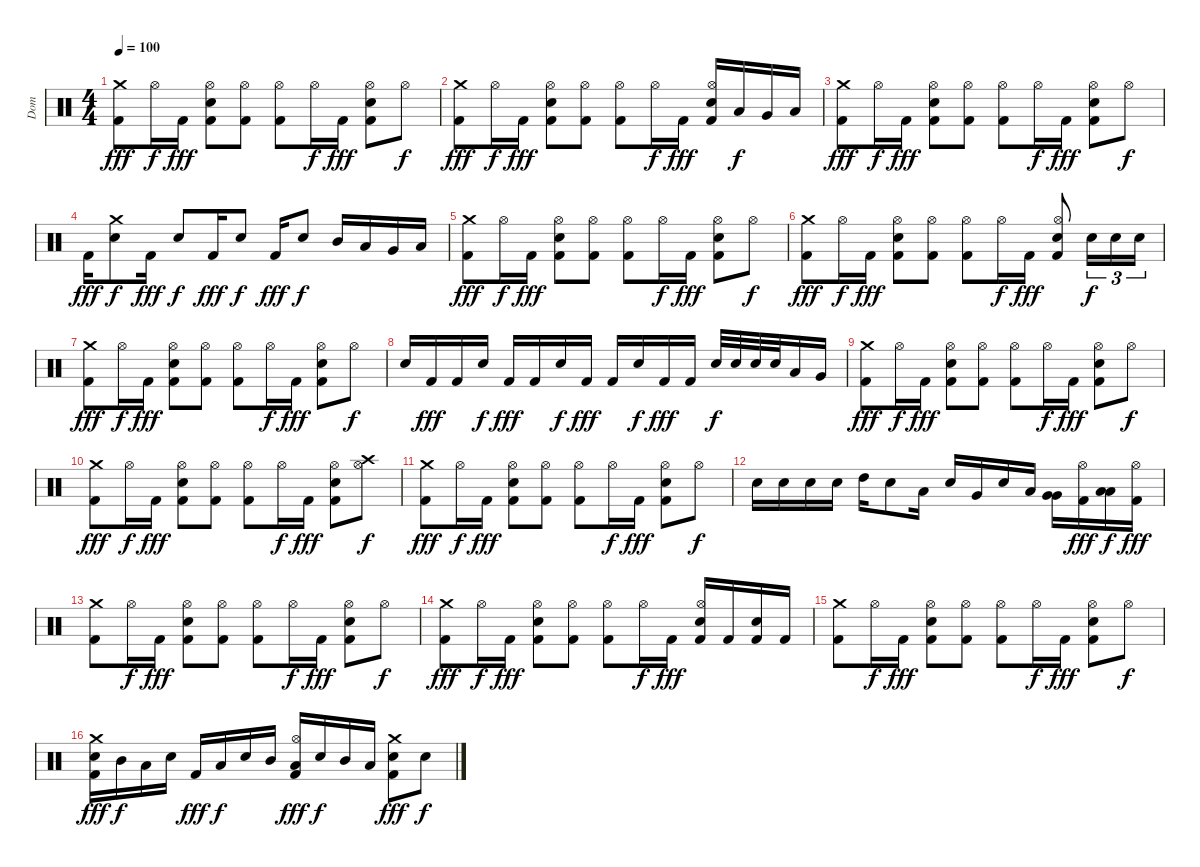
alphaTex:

\track ("Dom" "Dom") {instrument percussion}
\staff {score}
\articulation defaults
\ts (4 4)
\tempo 100
\clef neutral
\ks c
("Crash medium (hit)" "Kick (hit) 2").8{dy fff} "Hi-Hat (open)".16{dy f} "Kick (hit) 2".16{dy fff} ("Hi-Hat (open)" "Snare (hit) 2" "Kick (hit) 2").8 ("Hi-Hat (open)" "Kick (hit) 2").8 ("Hi-Hat (open)" "Kick (hit) 2").8 "Hi-Hat (open)".16{dy f} "Kick (hit) 2".16{dy fff} ("Hi-Hat (open)" "Snare (hit) 2" "Kick (hit) 2").8 "Hi-Hat (open)".8{dy f} |
("Crash medium (hit)" "Kick (hit) 2").8{dy fff} "Hi-Hat (open)".16{dy f} "Kick (hit) 2".16{dy fff} ("Hi-Hat (open)" "Snare (hit) 2" "Kick (hit) 2").8 ("Hi-Hat (open)" "Kick (hit) 2").8 ("Hi-Hat (open)" "Kick (hit) 2").8 "Hi-Hat (open)".16{dy f} "Kick (hit) 2".16{dy fff} ("Hi-Hat (open)" "Snare (hit) 2" "Kick (hit) 2").16 "Low Tom (hit)".16{dy f} "Very Low Tom (hit)".16 "Low Floor Tom (hit)".16 |
("Crash medium (hit)" "Kick (hit) 2").8{dy fff} "Hi-Hat (open)".16{dy f} "Kick (hit) 2".16{dy fff} ("Hi-Hat (open)" "Snare (hit) 2" "Kick (hit) 2").8 ("Hi-Hat (open)" "Kick (hit) 2").8 ("Hi-Hat (open)" "Kick (hit) 2").8 "Hi-Hat (open)".16{dy f} "Kick (hit) 2".16{dy fff} ("Hi-Hat (open)" "Snare (hit) 2" "Kick (hit) 2").8 "Hi-Hat (open)".8{dy f} |
"Kick (hit) 2".16{dy fff} ("Crash medium (hit)" "Snare (hit) 2").8{dy f} "Kick (hit) 2".16{dy fff} "Snare (hit) 2".8{dy f} "Kick (hit) 2".16{dy fff} "Snare (hit) 2".8{dy f} "Kick (hit) 2".16{dy fff} "Snare (hit) 2".8{dy f} "Mid Tom (hit)".16 "Low Tom (hit)".16 "Very Low Tom (hit)".16 "Low Floor Tom (hit)".16 |
("Crash medium (hit)" "Kick (hit) 2").8{dy fff} "Hi-Hat (open)".16{dy f} "Kick (hit) 2".16{dy fff} ("Hi-Hat (open)" "Snare (hit) 2" "Kick (hit) 2").8 ("Hi-Hat (open)" "Kick (hit) 2").8 ("Hi-Hat (open)" "Kick (hit) 2").8 "Hi-Hat (open)".16{dy f} "Kick (hit) 2".16{dy fff} ("Hi-Hat (open)" "Snare (hit) 2" "Kick (hit) 2").8 "Hi-Hat (open)".8{dy f} |
("Crash medium (hit)" "Kick (hit) 2").8{dy fff} "Hi-Hat (open)".16{dy f} "Kick (hit) 2".16{dy fff} ("Hi-Hat (open)" "Snare (hit) 2" "Kick (hit) 2").8 ("Hi-Hat (open)" "Kick (hit) 2").8 ("Hi-Hat (open)" "Kick (hit) 2").8 "Hi-Hat (open)".16{dy f} "Kick (hit) 2".16{dy fff} ("Hi-Hat (open)" "Snare (hit) 2" "Kick (hit) 2").8 "Snare (hit) 2".16{tu (3 2) dy f} "Snare (hit) 2".16{tu (3 2)} "Snare (hit) 2".16{tu (3 2)} |
("Crash medium (hit)" "Kick (hit) 2").8{dy fff} "Hi-Hat (open)".16{dy f} "Kick (hit) 2".16{dy fff} ("Hi-Hat (open)" "Snare (hit) 2" "Kick (hit) 2").8 ("Hi-Hat (open)" "Kick (hit) 2").8 ("Hi-Hat (open)" "Kick (hit) 2").8 "Hi-Hat (open)".16{dy f} "Kick (hit) 2".16{dy fff} ("Hi-Hat (open)" "Snare (hit) 2" "Kick (hit) 2").8 "Hi-Hat (open)".8{dy f} |
"Snare (hit) 2".16 "Kick (hit) 2".16{dy fff} "Kick (hit) 2".16 "Snare (hit) 2".16{dy f} "Kick (hit) 2".16{dy fff} "Kick (hit) 2".16 "Snare (hit) 2".16{dy f} "Kick (hit) 2".16{dy fff} "Kick (hit) 2".16 "Snare (hit) 2".16{dy f} "Kick (hit) 2".16{dy fff} "Kick (hit) 2".16 "Snare (hit) 2".32{dy f} "Snare (hit) 2".32 "Snare (hit) 2".32 "Snare (hit) 2".32 "Low Tom (hit)".16 "Very Low Tom (hit)".16 |
("Crash medium (hit)" "Kick (hit) 2").8{dy fff} "Hi-Hat (open)".16{dy f} "Kick (hit) 2".16{dy fff} ("Hi-Hat (open)" "Snare (hit) 2" "Kick (hit) 2").8 ("Hi-Hat (open)" "Kick (hit) 2").8 ("Hi-Hat (open)" "Kick (hit) 2").8 "Hi-Hat (open)".16{dy f} "Kick (hit) 2".16{dy fff} ("Hi-Hat (open)" "Snare (hit) 2" "Kick (hit) 2").8 "Hi-Hat (open)".8{dy f} |
("Crash medium (hit)" "Kick (hit) 2").8{dy fff} "Hi-Hat (open)".16{dy f} "Kick (hit) 2".16{dy fff} ("Hi-Hat (open)" "Snare (hit) 2" "Kick (hit) 2").8 ("Hi-Hat (open)" "Kick (hit) 2").8 ("Hi-Hat (open)" "Kick (hit) 2").8 "Hi-Hat (open)".16{dy f} "Kick (hit) 2".16{dy fff} ("Hi-Hat (open)" "Snare (hit) 2" "Kick (hit) 2").8 ("Crash high (hit)" "Hi-Hat (open)").8{dy f} |
("Crash medium (hit)" "Kick (hit) 2").8{dy fff} "Hi-Hat (open)".16{dy f} "Kick (hit) 2".16{dy fff} ("Hi-Hat (open)" "Snare (hit) 2" "Kick (hit) 2").8 ("Hi-Hat (open)" "Kick (hit) 2").8 ("Hi-Hat (open)" "Kick (hit) 2").8 "Hi-Hat (open)".16{dy f} "Kick (hit) 2".16{dy fff} ("Hi-Hat (open)" "Snare (hit) 2" "Kick (hit) 2").8 "Hi-Hat (open)".8{dy f} |
"Snare (hit) 2".16 "Snare (hit) 2".16 "Snare (hit) 2".16 "Snare (hit) 2".16 "High Tom (hit)".16 "Snare (hit) 2".8 "Low Tom (hit)".16 "Snare (hit) 2".16 "Very Low Tom (hit)".16 "Snare (hit) 2".16 "Low Floor Tom (hit)".16 ("Very Low Tom (hit)" "Very Low Tom (hit)").16 ("Hi-Hat (open)" "Kick (hit) 2").16{dy fff} ("Low Floor Tom (hit)" "Low Floor Tom (hit)").16{dy f} ("Hi-Hat (open)" "Kick (hit) 2").16{dy fff} |
("Crash medium (hit)" "Kick (hit) 2").8 "Hi-Hat (open)".16{dy f} "Kick (hit) 2".16{dy fff} ("Hi-Hat (open)" "Snare (hit) 2" "Kick (hit) 2").8 ("Hi-Hat (open)" "Kick (hit) 2").8 ("Hi-Hat (open)" "Kick (hit) 2").8 "Hi-Hat (open)".16{dy f} "Kick (hit) 2".16{dy fff} ("Hi-Hat (open)" "Snare (hit) 2" "Kick (hit) 2").8 "Hi-Hat (open)".8{dy f} |
("Crash medium (hit)" "Kick (hit) 2").8{dy fff} "Hi-Hat (open)".16{dy f} "Kick (hit) 2".16{dy fff} ("Hi-Hat (open)" "Snare (hit) 2" "Kick (hit) 2").8 ("Hi-Hat (open)" "Kick (hit) 2").8 ("Hi-Hat (open)" "Kick (hit) 2").8 "Hi-Hat (open)".16{dy f} "Kick (hit) 2".16{dy fff} ("Hi-Hat (open)" "Snare (hit) 2" "Kick (hit) 2").16 "Kick (hit) 2".16 ("Snare (hit) 2" "Kick (hit) 2").16 "Kick (hit) 2".16 |
("Crash medium (hit)" "Kick (hit) 2").8 "Hi-Hat (open)".16{dy f} "Kick (hit) 2".16{dy fff} ("Hi-Hat (open)" "Snare (hit) 2" "Kick (hit) 2").8 ("Hi-Hat (open)" "Kick (hit) 2").8 ("Hi-Hat (open)" "Kick (hit) 2").8 "Hi-Hat (open)".16{dy f} "Kick (hit) 2".16{dy fff} ("Hi-Hat (open)" "Snare (hit) 2" "Kick (hit) 2").8 "Hi-Hat (open)".8{dy f} |
("Crash medium (hit)" "Snare (hit) 2" "Kick (hit) 2").16{dy fff} "Mid Tom (hit)".16{dy f} "Low Tom (hit)".16 "Snare (hit) 2".16 "Kick (hit) 2".16{dy fff} "Low Tom (hit)".16{dy f} "Snare (hit) 2".16 "Mid Tom (hit)".16 ("Hi-Hat (open)" "Low Tom (hit)" "Kick (hit) 2").16{dy fff} "Snare (hit) 2".16{dy f} "Mid Tom (hit)".16 "Low Tom (hit)".16 ("Crash medium (hit)" "Snare (hit) 2" "Kick (hit) 2").8{dy fff} "Snare (hit) 2".8{dy f}
